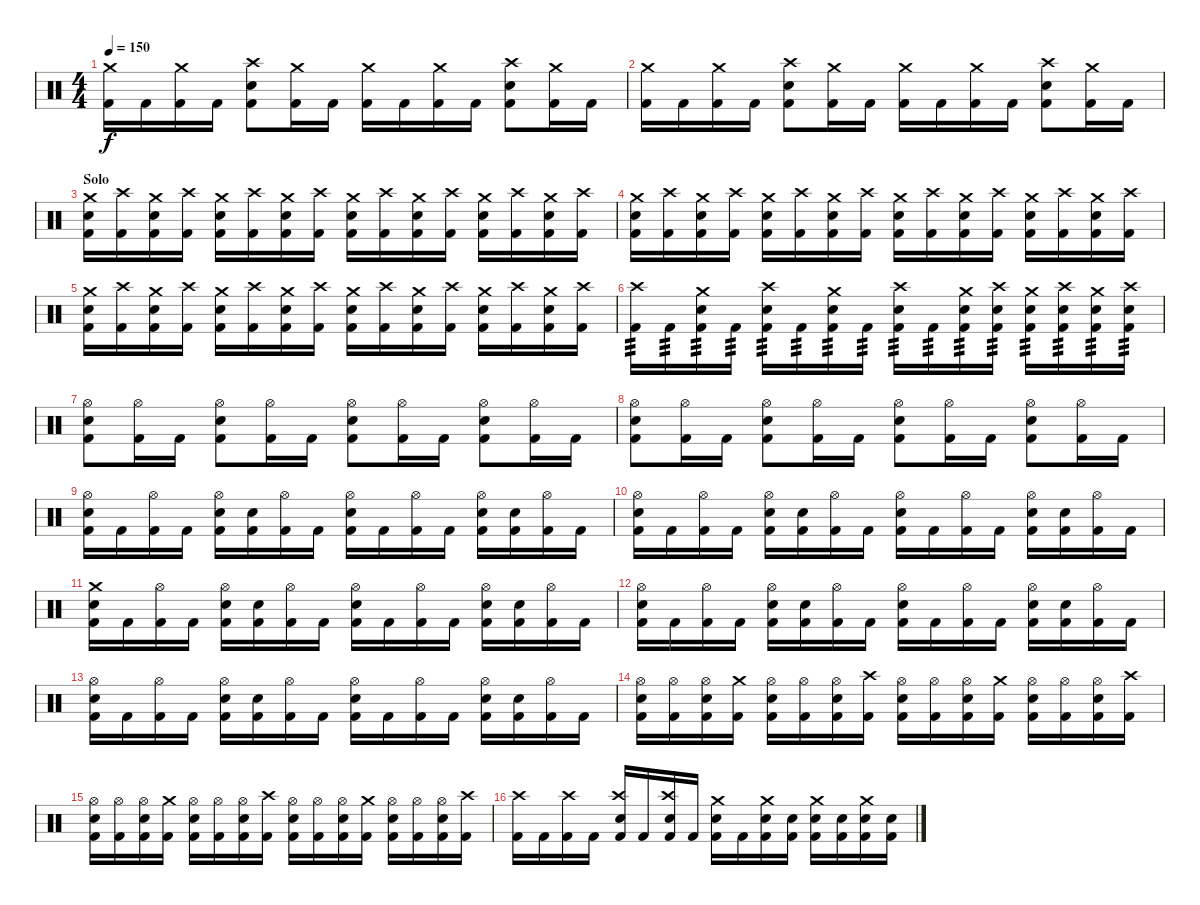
\track "" {instrument percussion}
\staff {score}
\articulation defaults
\ts (4 4)
\tempo 150
\clef neutral
\ks c
("Crash medium (hit)" "Kick (hit) 2").16{dy f} "Kick (hit) 2".16 ("Crash medium (hit)" "Kick (hit) 2").16 "Kick (hit) 2".16 ("Crash high (hit)" "Electric Snare (hit)" "Kick (hit) 2").8 ("Crash medium (hit)" "Kick (hit) 2").16 "Kick (hit) 2".16 ("Crash medium (hit)" "Kick (hit) 2").16 "Kick (hit) 2".16 ("Crash medium (hit)" "Kick (hit) 2").16 "Kick (hit) 2".16 ("Crash high (hit)" "Electric Snare (hit)" "Kick (hit) 2").8 ("Crash medium (hit)" "Kick (hit) 2").16 "Kick (hit) 2".16 |
("Crash medium (hit)" "Kick (hit) 2").16 "Kick (hit) 2".16 ("Crash medium (hit)" "Kick (hit) 2").16 "Kick (hit) 2".16 ("Crash high (hit)" "Electric Snare (hit)" "Kick (hit) 2").8 ("Crash medium (hit)" "Kick (hit) 2").16 "Kick (hit) 2".16 ("Crash medium (hit)" "Kick (hit) 2").16 "Kick (hit) 2".16 ("Crash medium (hit)" "Kick (hit) 2").16 "Kick (hit) 2".16 ("Crash high (hit)" "Electric Snare (hit)" "Kick (hit) 2").8 ("Crash medium (hit)" "Kick (hit) 2").16 "Kick (hit) 2".16 |
\section ("" "Solo")
("Crash medium (hit)" "Electric Snare (hit)" "Kick (hit) 2").16 ("Crash high (hit)" "Kick (hit) 2").16 ("Crash medium (hit)" "Electric Snare (hit)" "Kick (hit) 2").16 ("Crash high (hit)" "Kick (hit) 2").16 ("Crash medium (hit)" "Electric Snare (hit)" "Kick (hit) 2").16 ("Crash high (hit)" "Kick (hit) 2").16 ("Crash medium (hit)" "Electric Snare (hit)" "Kick (hit) 2").16 ("Crash high (hit)" "Kick (hit) 2").16 ("Crash medium (hit)" "Electric Snare (hit)" "Kick (hit) 2").16 ("Crash high (hit)" "Kick (hit) 2").16 ("Crash medium (hit)" "Electric Snare (hit)" "Kick (hit) 2").16 ("Crash high (hit)" "Kick (hit) 2").16 ("Crash medium (hit)" "Electric Snare (hit)" "Kick (hit) 2").16 ("Crash high (hit)" "Kick (hit) 2").16 ("Crash medium (hit)" "Electric Snare (hit)" "Kick (hit) 2").16 ("Crash high (hit)" "Kick (hit) 2").16 |
("Crash medium (hit)" "Electric Snare (hit)" "Kick (hit) 2").16 ("Crash high (hit)" "Kick (hit) 2").16 ("Crash medium (hit)" "Electric Snare (hit)" "Kick (hit) 2").16 ("Crash high (hit)" "Kick (hit) 2").16 ("Crash medium (hit)" "Electric Snare (hit)" "Kick (hit) 2").16 ("Crash high (hit)" "Kick (hit) 2").16 ("Crash medium (hit)" "Electric Snare (hit)" "Kick (hit) 2").16 ("Crash high (hit)" "Kick (hit) 2").16 ("Crash medium (hit)" "Electric Snare (hit)" "Kick (hit) 2").16 ("Crash high (hit)" "Kick (hit) 2").16 ("Crash medium (hit)" "Electric Snare (hit)" "Kick (hit) 2").16 ("Crash high (hit)" "Kick (hit) 2").16 ("Crash medium (hit)" "Electric Snare (hit)" "Kick (hit) 2").16 ("Crash high (hit)" "Kick (hit) 2").16 ("Crash medium (hit)" "Electric Snare (hit)" "Kick (hit) 2").16 ("Crash high (hit)" "Kick (hit) 2").16 |
("Crash medium (hit)" "Electric Snare (hit)" "Kick (hit) 2").16 ("Crash high (hit)" "Kick (hit) 2").16 ("Crash medium (hit)" "Electric Snare (hit)" "Kick (hit) 2").16 ("Crash high (hit)" "Kick (hit) 2").16 ("Crash medium (hit)" "Electric Snare (hit)" "Kick (hit) 2").16 ("Crash high (hit)" "Kick (hit) 2").16 ("Crash medium (hit)" "Electric Snare (hit)" "Kick (hit) 2").16 ("Crash high (hit)" "Kick (hit) 2").16 ("Crash medium (hit)" "Electric Snare (hit)" "Kick (hit) 2").16 ("Crash high (hit)" "Kick (hit) 2").16 ("Crash medium (hit)" "Electric Snare (hit)" "Kick (hit) 2").16 ("Crash high (hit)" "Kick (hit) 2").16 ("Crash medium (hit)" "Electric Snare (hit)" "Kick (hit) 2").16 ("Crash high (hit)" "Kick (hit) 2").16 ("Crash medium (hit)" "Electric Snare (hit)" "Kick (hit) 2").16 ("Crash high (hit)" "Kick (hit) 2").16 |
("Crash high (hit)" "Kick (hit) 2").16{tp 3} "Kick (hit) 2".16{tp 3} ("Crash medium (hit)" "Electric Snare (hit)" "Kick (hit) 2").16{tp 3} "Kick (hit) 2".16{tp 3} ("Crash high (hit)" "Electric Snare (hit)" "Kick (hit) 2").16{tp 3} "Kick (hit) 2".16{tp 3} ("Crash medium (hit)" "Electric Snare (hit)" "Kick (hit) 2").16{tp 3} "Kick (hit) 2".16{tp 3} ("Crash high (hit)" "Electric Snare (hit)" "Kick (hit) 2").16{tp 3} "Kick (hit) 2".16{tp 3} ("Crash medium (hit)" "Electric Snare (hit)" "Kick (hit) 2").16{tp 3} ("Crash high (hit)" "Electric Snare (hit)" "Kick (hit) 2").16{tp 3} ("Crash medium (hit)" "Electric Snare (hit)" "Kick (hit) 2").16{tp 3} ("Crash high (hit)" "Electric Snare (hit)" "Kick (hit) 2").16{tp 3} ("Crash medium (hit)" "Electric Snare (hit)" "Kick (hit) 2").16{tp 3} ("Crash high (hit)" "Electric Snare (hit)" "Kick (hit) 2").16{tp 3} |
("Hi-Hat (open)" "Electric Snare (hit)" "Kick (hit) 2").8 ("Hi-Hat (open)" "Kick (hit) 2").16 "Kick (hit) 2".16 ("Hi-Hat (open)" "Electric Snare (hit)" "Kick (hit) 2").8 ("Hi-Hat (open)" "Kick (hit) 2").16 "Kick (hit) 2".16 ("Hi-Hat (open)" "Electric Snare (hit)" "Kick (hit) 2").8 ("Hi-Hat (open)" "Kick (hit) 2").16 "Kick (hit) 2".16 ("Hi-Hat (open)" "Electric Snare (hit)" "Kick (hit) 2").8 ("Hi-Hat (open)" "Kick (hit) 2").16 "Kick (hit) 2".16 |
("Hi-Hat (open)" "Electric Snare (hit)" "Kick (hit) 2").8 ("Hi-Hat (open)" "Kick (hit) 2").16 "Kick (hit) 2".16 ("Hi-Hat (open)" "Electric Snare (hit)" "Kick (hit) 2").8 ("Hi-Hat (open)" "Kick (hit) 2").16 "Kick (hit) 2".16 ("Hi-Hat (open)" "Electric Snare (hit)" "Kick (hit) 2").8 ("Hi-Hat (open)" "Kick (hit) 2").16 "Kick (hit) 2".16 ("Hi-Hat (open)" "Electric Snare (hit)" "Kick (hit) 2").8 ("Hi-Hat (open)" "Kick (hit) 2").16 "Kick (hit) 2".16 |
("Hi-Hat (open)" "Electric Snare (hit)" "Kick (hit) 2").16 "Kick (hit) 2".16 ("Hi-Hat (open)" "Kick (hit) 2").16 "Kick (hit) 2".16 ("Hi-Hat (open)" "Electric Snare (hit)" "Kick (hit) 2").16 ("Electric Snare (hit)" "Kick (hit) 2").16 ("Hi-Hat (open)" "Kick (hit) 2").16 "Kick (hit) 2".16 ("Hi-Hat (open)" "Electric Snare (hit)" "Kick (hit) 2").16 "Kick (hit) 2".16 ("Hi-Hat (open)" "Kick (hit) 2").16 "Kick (hit) 2".16 ("Hi-Hat (open)" "Electric Snare (hit)" "Kick (hit) 2").16 ("Electric Snare (hit)" "Kick (hit) 2").16 ("Hi-Hat (open)" "Kick (hit) 2").16 "Kick (hit) 2".16 |
("Hi-Hat (open)" "Electric Snare (hit)" "Kick (hit) 2").16 "Kick (hit) 2".16 ("Hi-Hat (open)" "Kick (hit) 2").16 "Kick (hit) 2".16 ("Hi-Hat (open)" "Electric Snare (hit)" "Kick (hit) 2").16 ("Electric Snare (hit)" "Kick (hit) 2").16 ("Hi-Hat (open)" "Kick (hit) 2").16 "Kick (hit) 2".16 ("Hi-Hat (open)" "Electric Snare (hit)" "Kick (hit) 2").16 "Kick (hit) 2".16 ("Hi-Hat (open)" "Kick (hit) 2").16 "Kick (hit) 2".16 ("Hi-Hat (open)" "Electric Snare (hit)" "Kick (hit) 2").16 ("Electric Snare (hit)" "Kick (hit) 2").16 ("Hi-Hat (open)" "Kick (hit) 2").16 "Kick (hit) 2".16 |
("Crash medium (hit)" "Electric Snare (hit)" "Kick (hit) 2").16 "Kick (hit) 2".16 ("Hi-Hat (open)" "Kick (hit) 2").16 "Kick (hit) 2".16 ("Hi-Hat (open)" "Electric Snare (hit)" "Kick (hit) 2").16 ("Electric Snare (hit)" "Kick (hit) 2").16 ("Hi-Hat (open)" "Kick (hit) 2").16 "Kick (hit) 2".16 ("Hi-Hat (open)" "Electric Snare (hit)" "Kick (hit) 2").16 "Kick (hit) 2".16 ("Hi-Hat (open)" "Kick (hit) 2").16 "Kick (hit) 2".16 ("Hi-Hat (open)" "Electric Snare (hit)" "Kick (hit) 2").16 ("Electric Snare (hit)" "Kick (hit) 2").16 ("Hi-Hat (open)" "Kick (hit) 2").16 "Kick (hit) 2".16 |
("Hi-Hat (open)" "Electric Snare (hit)" "Kick (hit) 2").16 "Kick (hit) 2".16 ("Hi-Hat (open)" "Kick (hit) 2").16 "Kick (hit) 2".16 ("Hi-Hat (open)" "Electric Snare (hit)" "Kick (hit) 2").16 ("Electric Snare (hit)" "Kick (hit) 2").16 ("Hi-Hat (open)" "Kick (hit) 2").16 "Kick (hit) 2".16 ("Hi-Hat (open)" "Electric Snare (hit)" "Kick (hit) 2").16 "Kick (hit) 2".16 ("Hi-Hat (open)" "Kick (hit) 2").16 "Kick (hit) 2".16 ("Hi-Hat (open)" "Electric Snare (hit)" "Kick (hit) 2").16 ("Electric Snare (hit)" "Kick (hit) 2").16 ("Hi-Hat (open)" "Kick (hit) 2").16 "Kick (hit) 2".16 |
("Hi-Hat (open)" "Electric Snare (hit)" "Kick (hit) 2").16 "Kick (hit) 2".16 ("Hi-Hat (open)" "Kick (hit) 2").16 "Kick (hit) 2".16 ("Hi-Hat (open)" "Electric Snare (hit)" "Kick (hit) 2").16 ("Electric Snare (hit)" "Kick (hit) 2").16 ("Hi-Hat (open)" "Kick (hit) 2").16 "Kick (hit) 2".16 ("Hi-Hat (open)" "Electric Snare (hit)" "Kick (hit) 2").16 "Kick (hit) 2".16 ("Hi-Hat (open)" "Kick (hit) 2").16 "Kick (hit) 2".16 ("Hi-Hat (open)" "Electric Snare (hit)" "Kick (hit) 2").16 ("Electric Snare (hit)" "Kick (hit) 2").16 ("Hi-Hat (open)" "Kick (hit) 2").16 "Kick (hit) 2".16 |
("Hi-Hat (open)" "Electric Snare (hit)" "Kick (hit) 2").16 ("Hi-Hat (open)" "Kick (hit) 2").16 ("Hi-Hat (open)" "Electric Snare (hit)" "Kick (hit) 2").16 ("Crash medium (hit)" "Kick (hit) 2").16 ("Hi-Hat (open)" "Electric Snare (hit)" "Kick (hit) 2").16 ("Hi-Hat (open)" "Kick (hit) 2").16 ("Hi-Hat (open)" "Electric Snare (hit)" "Kick (hit) 2").16 ("Crash high (hit)" "Kick (hit) 2").16 ("Hi-Hat (open)" "Electric Snare (hit)" "Kick (hit) 2").16 ("Hi-Hat (open)" "Kick (hit) 2").16 ("Hi-Hat (open)" "Electric Snare (hit)" "Kick (hit) 2").16 ("Crash medium (hit)" "Kick (hit) 2").16 ("Hi-Hat (open)" "Electric Snare (hit)" "Kick (hit) 2").16 ("Hi-Hat (open)" "Kick (hit) 2").16 ("Hi-Hat (open)" "Electric Snare (hit)" "Kick (hit) 2").16 ("Crash high (hit)" "Kick (hit) 2").16 |
("Hi-Hat (open)" "Electric Snare (hit)" "Kick (hit) 2").16 ("Hi-Hat (open)" "Kick (hit) 2").16 ("Hi-Hat (open)" "Electric Snare (hit)" "Kick (hit) 2").16 ("Crash medium (hit)" "Kick (hit) 2").16 ("Hi-Hat (open)" "Electric Snare (hit)" "Kick (hit) 2").16 ("Hi-Hat (open)" "Kick (hit) 2").16 ("Hi-Hat (open)" "Electric Snare (hit)" "Kick (hit) 2").16 ("Crash high (hit)" "Kick (hit) 2").16 ("Hi-Hat (open)" "Electric Snare (hit)" "Kick (hit) 2").16 ("Hi-Hat (open)" "Kick (hit) 2").16 ("Hi-Hat (open)" "Electric Snare (hit)" "Kick (hit) 2").16 ("Crash medium (hit)" "Kick (hit) 2").16 ("Hi-Hat (open)" "Electric Snare (hit)" "Kick (hit) 2").16 ("Hi-Hat (open)" "Kick (hit) 2").16 ("Hi-Hat (open)" "Electric Snare (hit)" "Kick (hit) 2").16 ("Crash high (hit)" "Kick (hit) 2").16 |
("Crash high (hit)" "Kick (hit) 2").16 "Kick (hit) 2".16 ("Crash high (hit)" "Kick (hit) 2").16 "Kick (hit) 2".16 ("Crash high (hit)" "Electric Snare (hit)" "Kick (hit) 2").16 "Kick (hit) 2".16 ("Crash high (hit)" "Electric Snare (hit)" "Kick (hit) 2").16 "Kick (hit) 2".16 ("Crash medium (hit)" "Electric Snare (hit)" "Kick (hit) 2").16 "Kick (hit) 2".16 ("Crash medium (hit)" "Electric Snare (hit)" "Kick (hit) 2").16 ("Electric Snare (hit)" "Kick (hit) 2").16 ("Crash medium (hit)" "Electric Snare (hit)" "Kick (hit) 2").16 ("Electric Snare (hit)" "Kick (hit) 2").16 ("Crash medium (hit)" "Electric Snare (hit)" "Kick (hit) 2").16 ("Electric Snare (hit)" "Kick (hit) 2").16
